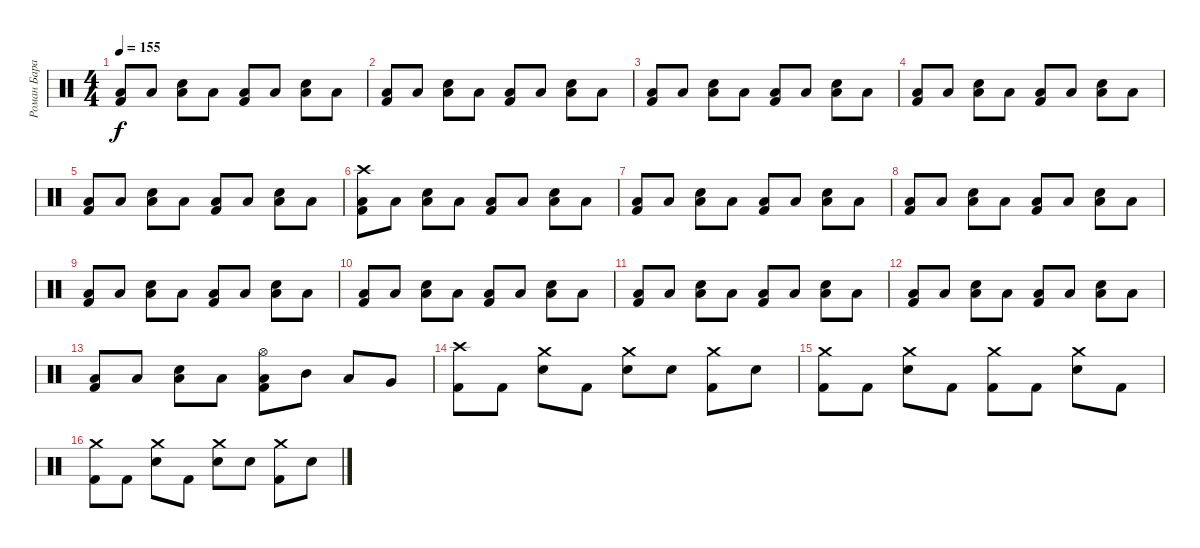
\track ("Роман Баранюк (Meinl, Vic Firth, Peace)" "Роман Бара") {instrument percussion}
\staff {score}
\articulation defaults
\ts (4 4)
\tempo 155
\clef neutral
\ks c
("Low Tom (hit)" "Kick (hit) 2").8{dy f} "Low Tom (hit)".8 ("Snare (hit) 2" "Low Tom (hit)").8 "Low Tom (hit)".8 ("Low Tom (hit)" "Kick (hit) 2").8 "Low Tom (hit)".8 ("Snare (hit) 2" "Low Tom (hit)").8 "Low Tom (hit)".8 |
("Low Tom (hit)" "Kick (hit) 2").8 "Low Tom (hit)".8 ("Snare (hit) 2" "Low Tom (hit)").8 "Low Tom (hit)".8 ("Low Tom (hit)" "Kick (hit) 2").8 "Low Tom (hit)".8 ("Snare (hit) 2" "Low Tom (hit)").8 "Low Tom (hit)".8 |
("Low Tom (hit)" "Kick (hit) 2").8 "Low Tom (hit)".8 ("Snare (hit) 2" "Low Tom (hit)").8 "Low Tom (hit)".8 ("Low Tom (hit)" "Kick (hit) 2").8 "Low Tom (hit)".8 ("Snare (hit) 2" "Low Tom (hit)").8 "Low Tom (hit)".8 |
("Low Tom (hit)" "Kick (hit) 2").8 "Low Tom (hit)".8 ("Snare (hit) 2" "Low Tom (hit)").8 "Low Tom (hit)".8 ("Low Tom (hit)" "Kick (hit) 2").8 "Low Tom (hit)".8 ("Snare (hit) 2" "Low Tom (hit)").8 "Low Tom (hit)".8 |
("Low Tom (hit)" "Kick (hit) 2").8 "Low Tom (hit)".8 ("Snare (hit) 2" "Low Tom (hit)").8 "Low Tom (hit)".8 ("Low Tom (hit)" "Kick (hit) 2").8 "Low Tom (hit)".8 ("Snare (hit) 2" "Low Tom (hit)").8 "Low Tom (hit)".8 |
("Crash high (hit)" "Low Tom (hit)" "Kick (hit) 2").8 "Low Tom (hit)".8 ("Snare (hit) 2" "Low Tom (hit)").8 "Low Tom (hit)".8 ("Low Tom (hit)" "Kick (hit) 2").8 "Low Tom (hit)".8 ("Snare (hit) 2" "Low Tom (hit)").8 "Low Tom (hit)".8 |
("Low Tom (hit)" "Kick (hit) 2").8 "Low Tom (hit)".8 ("Snare (hit) 2" "Low Tom (hit)").8 "Low Tom (hit)".8 ("Low Tom (hit)" "Kick (hit) 2").8 "Low Tom (hit)".8 ("Snare (hit) 2" "Low Tom (hit)").8 "Low Tom (hit)".8 |
("Low Tom (hit)" "Kick (hit) 2").8 "Low Tom (hit)".8 ("Snare (hit) 2" "Low Tom (hit)").8 "Low Tom (hit)".8 ("Low Tom (hit)" "Kick (hit) 2").8 "Low Tom (hit)".8 ("Snare (hit) 2" "Low Tom (hit)").8 "Low Tom (hit)".8 |
("Low Tom (hit)" "Kick (hit) 2").8 "Low Tom (hit)".8 ("Snare (hit) 2" "Low Tom (hit)").8 "Low Tom (hit)".8 ("Low Tom (hit)" "Kick (hit) 2").8 "Low Tom (hit)".8 ("Snare (hit) 2" "Low Tom (hit)").8 "Low Tom (hit)".8 |
("Low Tom (hit)" "Kick (hit) 2").8 "Low Tom (hit)".8 ("Snare (hit) 2" "Low Tom (hit)").8 "Low Tom (hit)".8 ("Low Tom (hit)" "Kick (hit) 2").8 "Low Tom (hit)".8 ("Snare (hit) 2" "Low Tom (hit)").8 "Low Tom (hit)".8 |
("Low Tom (hit)" "Kick (hit) 2").8 "Low Tom (hit)".8 ("Snare (hit) 2" "Low Tom (hit)").8 "Low Tom (hit)".8 ("Low Tom (hit)" "Kick (hit) 2").8 "Low Tom (hit)".8 ("Snare (hit) 2" "Low Tom (hit)").8 "Low Tom (hit)".8 |
("Low Tom (hit)" "Kick (hit) 2").8 "Low Tom (hit)".8 ("Snare (hit) 2" "Low Tom (hit)").8 "Low Tom (hit)".8 ("Low Tom (hit)" "Kick (hit) 2").8 "Low Tom (hit)".8 ("Snare (hit) 2" "Low Tom (hit)").8 "Low Tom (hit)".8 |
("Low Tom (hit)" "Kick (hit) 2").8 "Low Tom (hit)".8 ("Snare (hit) 2" "Low Tom (hit)").8 "Low Tom (hit)".8 ("Hi-Hat (open)" "Low Tom (hit)" "Kick (hit) 2").8 "Mid Tom (hit)".8 "Low Tom (hit)".8 "Very Low Tom (hit)".8 |
("Crash high (hit)" "Kick (hit) 2").8 "Kick (hit) 2".8 ("Crash medium (hit)" "Snare (hit) 2").8 "Kick (hit) 2".8 ("Crash medium (hit)" "Snare (hit) 2").8 "Snare (hit) 2".8 ("Crash medium (hit)" "Kick (hit) 2").8 "Snare (hit) 2".8 |
("Crash medium (hit)" "Kick (hit) 2").8 "Kick (hit) 2".8 ("Crash medium (hit)" "Snare (hit) 2").8 "Kick (hit) 2".8 ("Crash medium (hit)" "Kick (hit) 2").8 "Kick (hit) 2".8 ("Crash medium (hit)" "Snare (hit) 2").8 "Kick (hit) 2".8 |
("Crash medium (hit)" "Kick (hit) 2").8 "Kick (hit) 2".8 ("Crash medium (hit)" "Snare (hit) 2").8 "Kick (hit) 2".8 ("Crash medium (hit)" "Snare (hit) 2").8 "Snare (hit) 2".8 ("Crash medium (hit)" "Kick (hit) 2").8 "Snare (hit) 2".8
